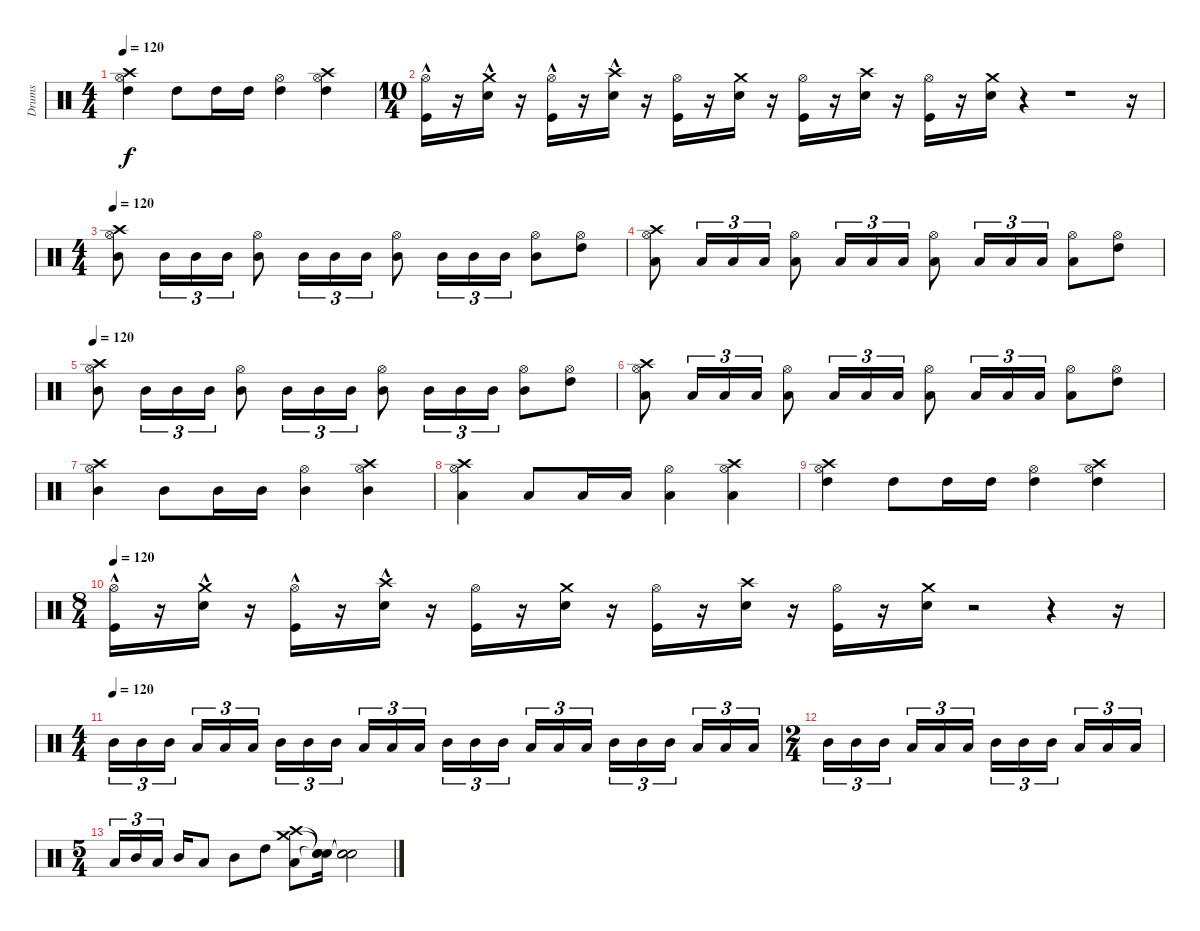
\track ("Drums" "Drums") {instrument percussion}
\staff {score}
\articulation defaults
\ts (4 4)
\tempo 120
\clef neutral
\ks c
("Hi-Hat (open)" "High Tom (hit)" "Crash high (hit)").4{dy f} "High Tom (hit)".8 "High Tom (hit)".16 "High Tom (hit)".16 ("Hi-Hat (open)" "High Tom (hit)").4 ("Hi-Hat (open)" "High Tom (hit)" "Crash high (hit)").4 |
\ts (10 4)
("Hi-Hat (open)" "Kick (hit)"{hac}).16 r.16 ("Crash medium (hit)" "Snare (hit) 2"{hac}).16 r.16 ("Hi-Hat (open)" "Kick (hit)"{hac}).16 r.16 ("Crash high (hit)" "Snare (hit) 2"{hac}).16 r.16 ("Hi-Hat (open)" "Kick (hit)").16 r.16 ("Crash medium (hit)" "Snare (hit) 2").16 r.16 ("Hi-Hat (open)" "Kick (hit)").16 r.16 ("Crash high (hit)" "Snare (hit) 2").16 r.16 ("Hi-Hat (open)" "Kick (hit)").16 r.16 ("Crash medium (hit)" "Snare (hit) 2").16 r.4 r.1 r.16 |
\ts (4 4)
\tempo 120
("Hi-Hat (open)" "Mid Tom (hit)" "Crash high (hit)").8 "Mid Tom (hit)".16{tu (3 2)} "Mid Tom (hit)".16{tu (3 2)} "Mid Tom (hit)".16{tu (3 2)} ("Hi-Hat (open)" "Mid Tom (hit)").8 "Mid Tom (hit)".16{tu (3 2)} "Mid Tom (hit)".16{tu (3 2)} "Mid Tom (hit)".16{tu (3 2)} ("Hi-Hat (open)" "Mid Tom (hit)").8 "Mid Tom (hit)".16{tu (3 2)} "Mid Tom (hit)".16{tu (3 2)} "Mid Tom (hit)".16{tu (3 2)} ("Hi-Hat (open)" "Mid Tom (hit)").8 ("Hi-Hat (open)" "High Tom (hit)").8 |
("Hi-Hat (open)" "Low Tom (hit)" "Crash high (hit)").8 "Low Tom (hit)".16{tu (3 2)} "Low Tom (hit)".16{tu (3 2)} "Low Tom (hit)".16{tu (3 2)} ("Hi-Hat (open)" "Low Tom (hit)").8 "Low Tom (hit)".16{tu (3 2)} "Low Tom (hit)".16{tu (3 2)} "Low Tom (hit)".16{tu (3 2)} ("Hi-Hat (open)" "Low Tom (hit)").8 "Low Tom (hit)".16{tu (3 2)} "Low Tom (hit)".16{tu (3 2)} "Low Tom (hit)".16{tu (3 2)} ("Hi-Hat (open)" "Low Tom (hit)").8 ("Hi-Hat (open)" "High Tom (hit)").8 |
\tempo 120
("Hi-Hat (open)" "Mid Tom (hit)" "Crash high (hit)").8 "Mid Tom (hit)".16{tu (3 2)} "Mid Tom (hit)".16{tu (3 2)} "Mid Tom (hit)".16{tu (3 2)} ("Hi-Hat (open)" "Mid Tom (hit)").8 "Mid Tom (hit)".16{tu (3 2)} "Mid Tom (hit)".16{tu (3 2)} "Mid Tom (hit)".16{tu (3 2)} ("Hi-Hat (open)" "Mid Tom (hit)").8 "Mid Tom (hit)".16{tu (3 2)} "Mid Tom (hit)".16{tu (3 2)} "Mid Tom (hit)".16{tu (3 2)} ("Hi-Hat (open)" "Mid Tom (hit)").8 ("Hi-Hat (open)" "High Tom (hit)").8 |
("Hi-Hat (open)" "Low Tom (hit)" "Crash high (hit)").8 "Low Tom (hit)".16{tu (3 2)} "Low Tom (hit)".16{tu (3 2)} "Low Tom (hit)".16{tu (3 2)} ("Hi-Hat (open)" "Low Tom (hit)").8 "Low Tom (hit)".16{tu (3 2)} "Low Tom (hit)".16{tu (3 2)} "Low Tom (hit)".16{tu (3 2)} ("Hi-Hat (open)" "Low Tom (hit)").8 "Low Tom (hit)".16{tu (3 2)} "Low Tom (hit)".16{tu (3 2)} "Low Tom (hit)".16{tu (3 2)} ("Hi-Hat (open)" "Low Tom (hit)").8 ("Hi-Hat (open)" "High Tom (hit)").8 |
("Hi-Hat (open)" "Mid Tom (hit)" "Crash high (hit)").4 "Mid Tom (hit)".8 "Mid Tom (hit)".16 "Mid Tom (hit)".16 ("Hi-Hat (open)" "Mid Tom (hit)").4 ("Hi-Hat (open)" "Mid Tom (hit)" "Crash high (hit)").4 |
("Hi-Hat (open)" "Low Tom (hit)" "Crash high (hit)").4 "Low Tom (hit)".8 "Low Tom (hit)".16 "Low Tom (hit)".16 ("Hi-Hat (open)" "Low Tom (hit)").4 ("Hi-Hat (open)" "Low Tom (hit)" "Crash high (hit)").4 |
("Hi-Hat (open)" "High Tom (hit)" "Crash high (hit)").4 "High Tom (hit)".8 "High Tom (hit)".16 "High Tom (hit)".16 ("Hi-Hat (open)" "High Tom (hit)").4 ("Hi-Hat (open)" "High Tom (hit)" "Crash high (hit)").4 |
\ts (8 4)
\tempo 120
("Hi-Hat (open)" "Kick (hit)"{hac}).16 r.16 ("Crash medium (hit)" "Snare (hit) 2"{hac}).16 r.16 ("Hi-Hat (open)" "Kick (hit)"{hac}).16 r.16 ("Crash high (hit)" "Snare (hit) 2"{hac}).16 r.16 ("Hi-Hat (open)" "Kick (hit)").16 r.16 ("Crash medium (hit)" "Snare (hit) 2").16 r.16 ("Hi-Hat (open)" "Kick (hit)").16 r.16 ("Crash high (hit)" "Snare (hit) 2").16 r.16 ("Hi-Hat (open)" "Kick (hit)").16 r.16 ("Crash medium (hit)" "Snare (hit) 2").16 r.2 r.4 r.16 |
\ts (4 4)
\tempo (120)
"Mid Tom (hit)".16{tu (3 2)} "Mid Tom (hit)".16{tu (3 2)} "Mid Tom (hit)".16{tu (3 2)} "Low Tom (hit)".16{tu (3 2)} "Low Tom (hit)".16{tu (3 2)} "Low Tom (hit)".16{tu (3 2)} "Mid Tom (hit)".16{tu (3 2)} "Mid Tom (hit)".16{tu (3 2)} "Mid Tom (hit)".16{tu (3 2)} "Low Tom (hit)".16{tu (3 2)} "Low Tom (hit)".16{tu (3 2)} "Low Tom (hit)".16{tu (3 2)} "Mid Tom (hit)".16{tu (3 2)} "Mid Tom (hit)".16{tu (3 2)} "Mid Tom (hit)".16{tu (3 2)} "Low Tom (hit)".16{tu (3 2)} "Low Tom (hit)".16{tu (3 2)} "Low Tom (hit)".16{tu (3 2)} "Mid Tom (hit)".16{tu (3 2)} "Mid Tom (hit)".16{tu (3 2)} "Mid Tom (hit)".16{tu (3 2)} "Low Tom (hit)".16{tu (3 2)} "Low Tom (hit)".16{tu (3 2)} "Low Tom (hit)".16{tu (3 2)} |
\ts (2 4)
"Mid Tom (hit)".16{tu (3 2)} "Mid Tom (hit)".16{tu (3 2)} "Mid Tom (hit)".16{tu (3 2)} "Low Tom (hit)".16{tu (3 2)} "Low Tom (hit)".16{tu (3 2)} "Low Tom (hit)".16{tu (3 2)} "Mid Tom (hit)".16{tu (3 2)} "Mid Tom (hit)".16{tu (3 2)} "Mid Tom (hit)".16{tu (3 2)} "Low Tom (hit)".16{tu (3 2)} "Low Tom (hit)".16{tu (3 2)} "Low Tom (hit)".16{tu (3 2)} |
\ts (5 4)
"Low Tom (hit)".16{tu (3 2)} "Mid Tom (hit)".16{tu (3 2)} "Low Tom (hit)".16{tu (3 2)} "Mid Tom (hit)".16 "Low Tom (hit)".8 "Mid Tom (hit)".8 "High Tom (hit)".8 ("Crash high (hit)" "Crash medium (hit)" "Low Tom (hit)").8 ("Snare (hit)"{t} "Snare (hit)"{t} "Snare (hit)"{t}).16 ("Snare (hit)"{t} "Snare (hit)"{t} "Snare (hit)"{t}).2
